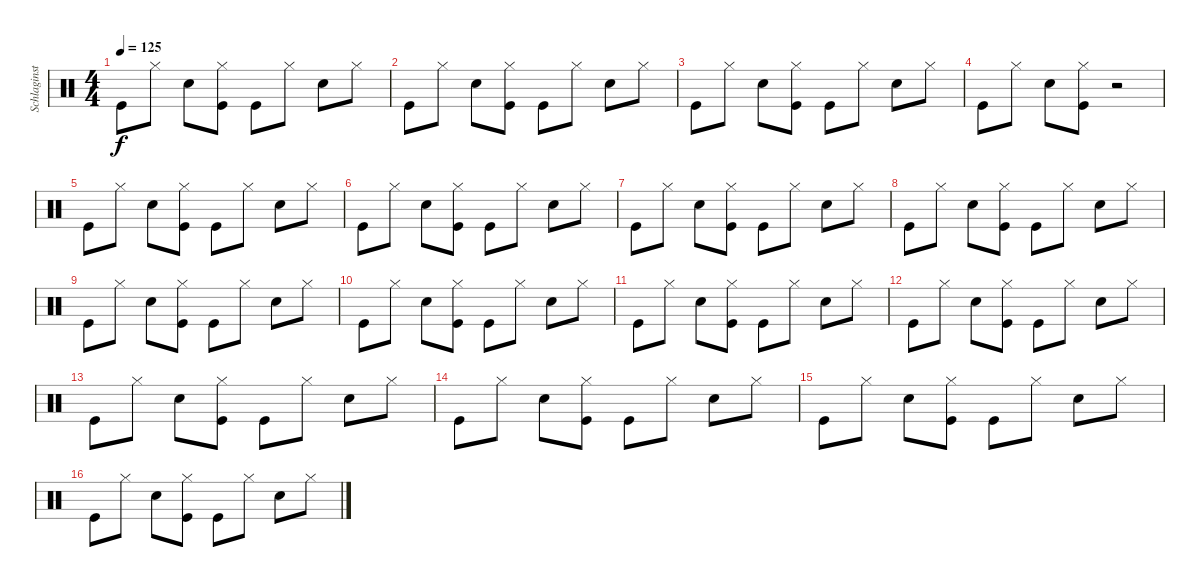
\track ("Schlaginstrumente - Auswahl" "Schlaginst") {instrument percussion}
\staff {score}
\articulation defaults
\ts (4 4)
\tempo 125
\clef neutral
\ks c "Kick (hit)".8{dy f} "Hi-Hat (closed)".8 "Snare (hit) 2".8
("Hi-Hat (closed)" "Kick (hit)").8 "Kick (hit)".8 "Hi-Hat (closed)".8 "Snare (hit) 2".8 "Hi-Hat (closed)".8 |
"Kick (hit)".8 "Hi-Hat (closed)".8 "Snare (hit) 2".8 ("Hi-Hat (closed)" "Kick (hit)").8 "Kick (hit)".8 "Hi-Hat (closed)".8 "Snare (hit) 2".8 "Hi-Hat (closed)".8 |
"Kick (hit)".8 "Hi-Hat (closed)".8 "Snare (hit) 2".8 ("Hi-Hat (closed)" "Kick (hit)").8 "Kick (hit)".8 "Hi-Hat (closed)".8 "Snare (hit) 2".8 "Hi-Hat (closed)".8 |
"Kick (hit)".8 "Hi-Hat (closed)".8 "Snare (hit) 2".8 ("Hi-Hat (closed)" "Kick (hit)").8 r.2 |
"Kick (hit)".8 "Hi-Hat (closed)".8 "Snare (hit) 2".8 ("Hi-Hat (closed)" "Kick (hit)").8 "Kick (hit)".8 "Hi-Hat (closed)".8 "Snare (hit) 2".8 "Hi-Hat (closed)".8 |
"Kick (hit)".8 "Hi-Hat (closed)".8 "Snare (hit) 2".8 ("Hi-Hat (closed)" "Kick (hit)").8 "Kick (hit)".8 "Hi-Hat (closed)".8 "Snare (hit) 2".8 "Hi-Hat (closed)".8 |
"Kick (hit)".8 "Hi-Hat (closed)".8 "Snare (hit) 2".8 ("Hi-Hat (closed)" "Kick (hit)").8 "Kick (hit)".8 "Hi-Hat (closed)".8 "Snare (hit) 2".8 "Hi-Hat (closed)".8 |
"Kick (hit)".8 "Hi-Hat (closed)".8 "Snare (hit) 2".8 ("Hi-Hat (closed)" "Kick (hit)").8 "Kick (hit)".8 "Hi-Hat (closed)".8 "Snare (hit) 2".8 "Hi-Hat (closed)".8 |
"Kick (hit)".8 "Hi-Hat (closed)".8 "Snare (hit) 2".8 ("Hi-Hat (closed)" "Kick (hit)").8 "Kick (hit)".8 "Hi-Hat (closed)".8 "Snare (hit) 2".8 "Hi-Hat (closed)".8 |
"Kick (hit)".8 "Hi-Hat (closed)".8 "Snare (hit) 2".8 ("Hi-Hat (closed)" "Kick (hit)").8 "Kick (hit)".8 "Hi-Hat (closed)".8 "Snare (hit) 2".8 "Hi-Hat (closed)".8 |
"Kick (hit)".8 "Hi-Hat (closed)".8 "Snare (hit) 2".8 ("Hi-Hat (closed)" "Kick (hit)").8 "Kick (hit)".8 "Hi-Hat (closed)".8 "Snare (hit) 2".8 "Hi-Hat (closed)".8 |
"Kick (hit)".8 "Hi-Hat (closed)".8 "Snare (hit) 2".8 ("Hi-Hat (closed)" "Kick (hit)").8 "Kick (hit)".8 "Hi-Hat (closed)".8 "Snare (hit) 2".8 "Hi-Hat (closed)".8 |
"Kick (hit)".8 "Hi-Hat (closed)".8 "Snare (hit) 2".8 ("Hi-Hat (closed)" "Kick (hit)").8 "Kick (hit)".8 "Hi-Hat (closed)".8 "Snare (hit) 2".8 "Hi-Hat (closed)".8 |
"Kick (hit)".8 "Hi-Hat (closed)".8 "Snare (hit) 2".8 ("Hi-Hat (closed)" "Kick (hit)").8 "Kick (hit)".8 "Hi-Hat (closed)".8 "Snare (hit) 2".8 "Hi-Hat (closed)".8 |
"Kick (hit)".8 "Hi-Hat (closed)".8 "Snare (hit) 2".8 ("Hi-Hat (closed)" "Kick (hit)").8 "Kick (hit)".8 "Hi-Hat (closed)".8 "Snare (hit) 2".8 "Hi-Hat (closed)".8 |
"Kick (hit)".8 "Hi-Hat (closed)".8 "Snare (hit) 2".8 ("Hi-Hat (closed)" "Kick (hit)").8 "Kick (hit)".8 "Hi-Hat (closed)".8 "Snare (hit) 2".8 "Hi-Hat (closed)".8
